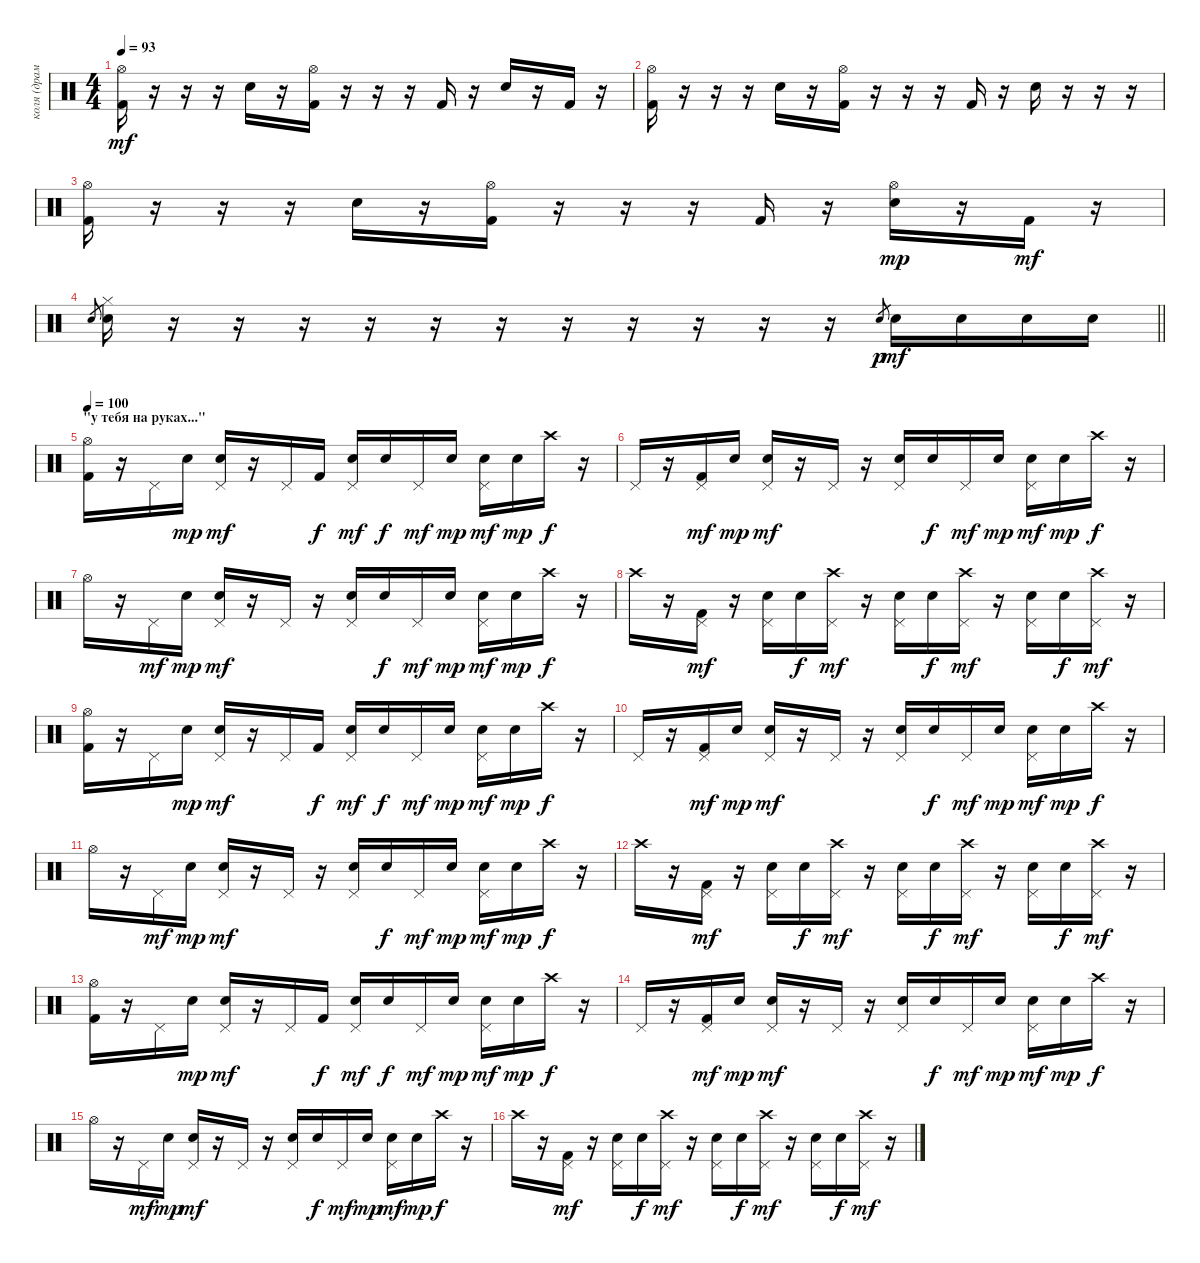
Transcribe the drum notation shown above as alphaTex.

\track ("коля (драммы)" "коля (драм") {instrument percussion}
\staff {score}
\articulation defaults
\ts (4 4)
\tempo 93
\clef neutral
\ks c
("Hi-Hat (open)" "Kick (hit) 2").16{dy mf} r.16 r.16 r.16 "Snare (hit) 2".16 r.16 ("Hi-Hat (open)" "Kick (hit) 2").16 r.16 r.16 r.16 "Kick (hit) 2".16 r.16 "Snare (hit) 2".16 r.16 "Kick (hit) 2".16 r.16 |
("Hi-Hat (open)" "Kick (hit) 2").16 r.16 r.16 r.16 "Snare (hit) 2".16 r.16 ("Hi-Hat (open)" "Kick (hit) 2").16 r.16 r.16 r.16 "Kick (hit) 2".16 r.16 "Snare (hit) 2".16 r.16 r.16 r.16 |
("Hi-Hat (open)" "Kick (hit) 2").16 r.16 r.16 r.16 "Snare (hit) 2".16 r.16 ("Hi-Hat (open)" "Kick (hit) 2").16 r.16 r.16 r.16 "Kick (hit) 2".16 r.16 ("Snare (hit) 2" "Hi-Hat (open)").16{dy mp} r.16 "Kick (hit) 2".16{dy mf} r.16 |
\barLineRight lightlight "Snare (hit) 2".8{gr}
("Snare (hit) 2" "Hi-Hat (closed)").16 r.16 r.16 r.16 r.16 r.16 r.16 r.16 r.16 r.16 r.16 r.16 "Snare (hit) 2".8{gr dy p} "Snare (hit) 2".16{dy mf} "Snare (hit) 2".16 "Snare (hit) 2".16 "Snare (hit) 2".16 |
\section ("" "\"у тебя на руках...\"")
\tempo 100
("Hi-Hat (open)" "Kick (hit) 2").16 r.16 "Pedal Hi-Hat (hit)".16 "Snare (hit) 2".16{dy mp} ("Snare (hit) 2" "Pedal Hi-Hat (hit)").16{dy mf} r.16 "Pedal Hi-Hat (hit)".16 "Kick (hit) 2".16{dy f} ("Snare (hit) 2" "Pedal Hi-Hat (hit)").16{dy mf} "Snare (hit) 2".16{dy f} "Pedal Hi-Hat (hit)".16{dy mf} "Snare (hit) 2".16{dy mp} ("Snare (hit) 2" "Pedal Hi-Hat (hit)").16{dy mf} "Snare (hit) 2".16{dy mp} "Crash high (hit)".16{dy f} r.16 |
"Pedal Hi-Hat (hit)".16 r.16 ("Pedal Hi-Hat (hit)" "Kick (hit) 2").16{dy mf} "Snare (hit) 2".16{dy mp} ("Snare (hit) 2" "Pedal Hi-Hat (hit)").16{dy mf} r.16 "Pedal Hi-Hat (hit)".16 r.16 ("Snare (hit) 2" "Pedal Hi-Hat (hit)").16 "Snare (hit) 2".16{dy f} "Pedal Hi-Hat (hit)".16{dy mf} "Snare (hit) 2".16{dy mp} ("Snare (hit) 2" "Pedal Hi-Hat (hit)").16{dy mf} "Snare (hit) 2".16{dy mp} "Crash high (hit)".16{dy f} r.16 |
"Hi-Hat (open)".16 r.16 "Pedal Hi-Hat (hit)".16{dy mf} "Snare (hit) 2".16{dy mp} ("Snare (hit) 2" "Pedal Hi-Hat (hit)").16{dy mf} r.16 "Pedal Hi-Hat (hit)".16 r.16 ("Snare (hit) 2" "Pedal Hi-Hat (hit)").16 "Snare (hit) 2".16{dy f} "Pedal Hi-Hat (hit)".16{dy mf} "Snare (hit) 2".16{dy mp} ("Snare (hit) 2" "Pedal Hi-Hat (hit)").16{dy mf} "Snare (hit) 2".16{dy mp} "Crash high (hit)".16{dy f} r.16 |
"Crash high (hit)".16 r.16 ("Pedal Hi-Hat (hit)" "Kick (hit) 2").16{dy mf} r.16 ("Snare (hit) 2" "Pedal Hi-Hat (hit)").16 "Snare (hit) 2".16{dy f} ("Crash high (hit)" "Pedal Hi-Hat (hit)").16{dy mf} r.16 ("Snare (hit) 2" "Pedal Hi-Hat (hit)").16 "Snare (hit) 2".16{dy f} ("Crash high (hit)" "Pedal Hi-Hat (hit)").16{dy mf} r.16 ("Snare (hit) 2" "Pedal Hi-Hat (hit)").16 "Snare (hit) 2".16{dy f} ("Crash high (hit)" "Pedal Hi-Hat (hit)").16{dy mf} r.16 |
("Hi-Hat (open)" "Kick (hit) 2").16 r.16 "Pedal Hi-Hat (hit)".16 "Snare (hit) 2".16{dy mp} ("Snare (hit) 2" "Pedal Hi-Hat (hit)").16{dy mf} r.16 "Pedal Hi-Hat (hit)".16 "Kick (hit) 2".16{dy f} ("Snare (hit) 2" "Pedal Hi-Hat (hit)").16{dy mf} "Snare (hit) 2".16{dy f} "Pedal Hi-Hat (hit)".16{dy mf} "Snare (hit) 2".16{dy mp} ("Snare (hit) 2" "Pedal Hi-Hat (hit)").16{dy mf} "Snare (hit) 2".16{dy mp} "Crash high (hit)".16{dy f} r.16 |
"Pedal Hi-Hat (hit)".16 r.16 ("Pedal Hi-Hat (hit)" "Kick (hit) 2").16{dy mf} "Snare (hit) 2".16{dy mp} ("Snare (hit) 2" "Pedal Hi-Hat (hit)").16{dy mf} r.16 "Pedal Hi-Hat (hit)".16 r.16 ("Snare (hit) 2" "Pedal Hi-Hat (hit)").16 "Snare (hit) 2".16{dy f} "Pedal Hi-Hat (hit)".16{dy mf} "Snare (hit) 2".16{dy mp} ("Snare (hit) 2" "Pedal Hi-Hat (hit)").16{dy mf} "Snare (hit) 2".16{dy mp} "Crash high (hit)".16{dy f} r.16 |
"Hi-Hat (open)".16 r.16 "Pedal Hi-Hat (hit)".16{dy mf} "Snare (hit) 2".16{dy mp} ("Snare (hit) 2" "Pedal Hi-Hat (hit)").16{dy mf} r.16 "Pedal Hi-Hat (hit)".16 r.16 ("Snare (hit) 2" "Pedal Hi-Hat (hit)").16 "Snare (hit) 2".16{dy f} "Pedal Hi-Hat (hit)".16{dy mf} "Snare (hit) 2".16{dy mp} ("Snare (hit) 2" "Pedal Hi-Hat (hit)").16{dy mf} "Snare (hit) 2".16{dy mp} "Crash high (hit)".16{dy f} r.16 |
"Crash high (hit)".16 r.16 ("Pedal Hi-Hat (hit)" "Kick (hit) 2").16{dy mf} r.16 ("Snare (hit) 2" "Pedal Hi-Hat (hit)").16 "Snare (hit) 2".16{dy f} ("Crash high (hit)" "Pedal Hi-Hat (hit)").16{dy mf} r.16 ("Snare (hit) 2" "Pedal Hi-Hat (hit)").16 "Snare (hit) 2".16{dy f} ("Crash high (hit)" "Pedal Hi-Hat (hit)").16{dy mf} r.16 ("Snare (hit) 2" "Pedal Hi-Hat (hit)").16 "Snare (hit) 2".16{dy f} ("Crash high (hit)" "Pedal Hi-Hat (hit)").16{dy mf} r.16 |
("Hi-Hat (open)" "Kick (hit) 2").16 r.16 "Pedal Hi-Hat (hit)".16 "Snare (hit) 2".16{dy mp} ("Snare (hit) 2" "Pedal Hi-Hat (hit)").16{dy mf} r.16 "Pedal Hi-Hat (hit)".16 "Kick (hit) 2".16{dy f} ("Snare (hit) 2" "Pedal Hi-Hat (hit)").16{dy mf} "Snare (hit) 2".16{dy f} "Pedal Hi-Hat (hit)".16{dy mf} "Snare (hit) 2".16{dy mp} ("Snare (hit) 2" "Pedal Hi-Hat (hit)").16{dy mf} "Snare (hit) 2".16{dy mp} "Crash high (hit)".16{dy f} r.16 |
"Pedal Hi-Hat (hit)".16 r.16 ("Pedal Hi-Hat (hit)" "Kick (hit) 2").16{dy mf} "Snare (hit) 2".16{dy mp} ("Snare (hit) 2" "Pedal Hi-Hat (hit)").16{dy mf} r.16 "Pedal Hi-Hat (hit)".16 r.16 ("Snare (hit) 2" "Pedal Hi-Hat (hit)").16 "Snare (hit) 2".16{dy f} "Pedal Hi-Hat (hit)".16{dy mf} "Snare (hit) 2".16{dy mp} ("Snare (hit) 2" "Pedal Hi-Hat (hit)").16{dy mf} "Snare (hit) 2".16{dy mp} "Crash high (hit)".16{dy f} r.16 |
"Hi-Hat (open)".16 r.16 "Pedal Hi-Hat (hit)".16{dy mf} "Snare (hit) 2".16{dy mp} ("Snare (hit) 2" "Pedal Hi-Hat (hit)").16{dy mf} r.16 "Pedal Hi-Hat (hit)".16 r.16 ("Snare (hit) 2" "Pedal Hi-Hat (hit)").16 "Snare (hit) 2".16{dy f} "Pedal Hi-Hat (hit)".16{dy mf} "Snare (hit) 2".16{dy mp} ("Snare (hit) 2" "Pedal Hi-Hat (hit)").16{dy mf} "Snare (hit) 2".16{dy mp} "Crash high (hit)".16{dy f} r.16 |
"Crash high (hit)".16 r.16 ("Pedal Hi-Hat (hit)" "Kick (hit) 2").16{dy mf} r.16 ("Snare (hit) 2" "Pedal Hi-Hat (hit)").16 "Snare (hit) 2".16{dy f} ("Crash high (hit)" "Pedal Hi-Hat (hit)").16{dy mf} r.16 ("Snare (hit) 2" "Pedal Hi-Hat (hit)").16 "Snare (hit) 2".16{dy f} ("Crash high (hit)" "Pedal Hi-Hat (hit)").16{dy mf} r.16 ("Snare (hit) 2" "Pedal Hi-Hat (hit)").16 "Snare (hit) 2".16{dy f} ("Crash high (hit)" "Pedal Hi-Hat (hit)").16{dy mf} r.16
